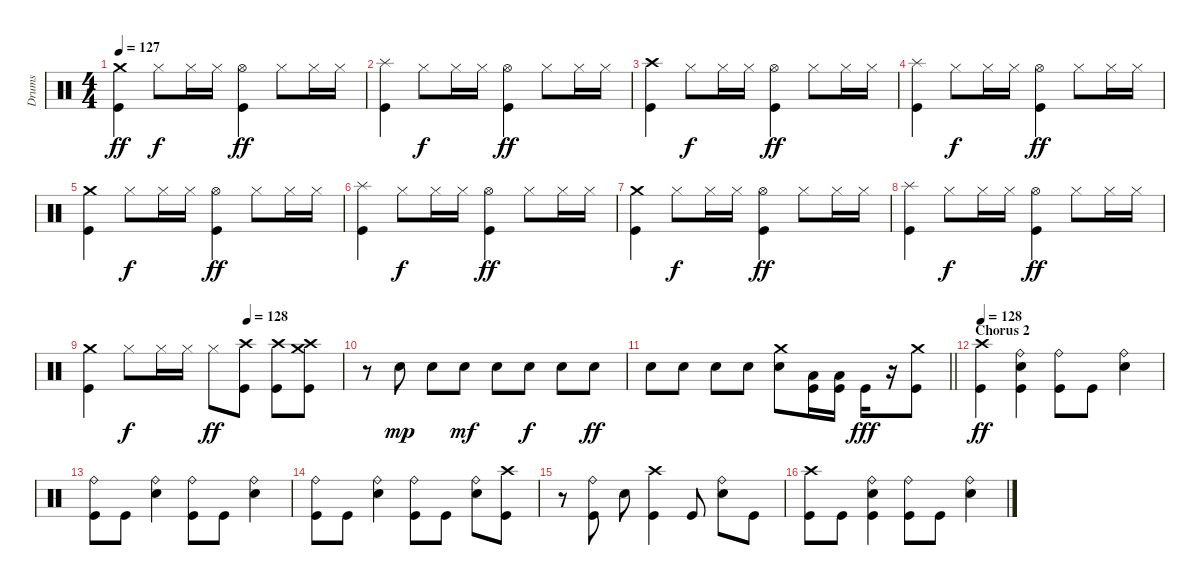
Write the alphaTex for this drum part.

\track ("Drums" "Drums") {instrument percussion}
\staff {score}
\articulation defaults
\ts (4 4)
\tempo 127
\clef neutral
\ks c
("Crash medium (hit)" "Kick (hit)").4{dy ff} "Hi-Hat (closed)".8{dy f} "Hi-Hat (closed)".16 "Hi-Hat (closed)".16 ("Hi-Hat (open)" "Kick (hit)").4{dy ff} "Hi-Hat (closed)".8 "Hi-Hat (closed)".16 "Hi-Hat (closed)".16 |
("Splash (hit)" "Kick (hit)").4 "Hi-Hat (closed)".8{dy f} "Hi-Hat (closed)".16 "Hi-Hat (closed)".16 ("Hi-Hat (open)" "Kick (hit)").4{dy ff} "Hi-Hat (closed)".8 "Hi-Hat (closed)".16 "Hi-Hat (closed)".16 |
("Crash high (hit)" "Kick (hit)").4 "Hi-Hat (closed)".8{dy f} "Hi-Hat (closed)".16 "Hi-Hat (closed)".16 ("Hi-Hat (open)" "Kick (hit)").4{dy ff} "Hi-Hat (closed)".8 "Hi-Hat (closed)".16 "Hi-Hat (closed)".16 |
("Splash (hit)" "Kick (hit)").4 "Hi-Hat (closed)".8{dy f} "Hi-Hat (closed)".16 "Hi-Hat (closed)".16 ("Hi-Hat (open)" "Kick (hit)").4{dy ff} "Hi-Hat (closed)".8 "Hi-Hat (closed)".16 "Hi-Hat (closed)".16 |
("Crash medium (hit)" "Kick (hit)").4 "Hi-Hat (closed)".8{dy f} "Hi-Hat (closed)".16 "Hi-Hat (closed)".16 ("Hi-Hat (open)" "Kick (hit)").4{dy ff} "Hi-Hat (closed)".8 "Hi-Hat (closed)".16 "Hi-Hat (closed)".16 |
("Splash (hit)" "Kick (hit)").4 "Hi-Hat (closed)".8{dy f} "Hi-Hat (closed)".16 "Hi-Hat (closed)".16 ("Hi-Hat (open)" "Kick (hit)").4{dy ff} "Hi-Hat (closed)".8 "Hi-Hat (closed)".16 "Hi-Hat (closed)".16 |
("Crash medium (hit)" "Kick (hit)").4 "Hi-Hat (closed)".8{dy f} "Hi-Hat (closed)".16 "Hi-Hat (closed)".16 ("Hi-Hat (open)" "Kick (hit)").4{dy ff} "Hi-Hat (closed)".8 "Hi-Hat (closed)".16 "Hi-Hat (closed)".16 |
("Splash (hit)" "Kick (hit)").4 "Hi-Hat (closed)".8{dy f} "Hi-Hat (closed)".16 "Hi-Hat (closed)".16 ("Hi-Hat (open)" "Kick (hit)").4{dy ff} "Hi-Hat (closed)".8 "Hi-Hat (closed)".16 "Hi-Hat (closed)".16 |
\tempo (128 0.625)
("Crash medium (hit)" "Kick (hit)").4 "Hi-Hat (closed)".8{dy f} "Hi-Hat (closed)".16 "Hi-Hat (closed)".16 "Hi-Hat (closed)".8{dy ff} ("Crash high (hit)" "Kick (hit)").8 ("Crash high (hit)" "Kick (hit)").8 ("Crash high (hit)" "Crash medium (hit)" "Kick (hit)").8 |
r.8 "Electric Snare (hit)".8{dy mp} "Electric Snare (hit)".8 "Electric Snare (hit)".8{dy mf} "Electric Snare (hit)".8 "Electric Snare (hit)".8{dy f} "Electric Snare (hit)".8 "Electric Snare (hit)".8{dy ff} |
\barLineRight lightlight "Electric Snare (hit)".8 "Electric Snare (hit)".8 "Electric Snare (hit)".8 "Electric Snare (hit)".8
("Crash medium (hit)" "Electric Snare (hit)").8 ("Low Tom (hit)" "Kick (hit)").16 ("Low Tom (hit)" "Kick (hit)").16 "Kick (hit)".16{dy fff} r.16 ("Crash medium (hit)" "Kick (hit)").8 |
\section ("" "Chorus 2")
\tempo 128
("Crash high (hit)" "Kick (hit)").4{dy ff} ("Ride (bell)" "Electric Snare (hit)" "Kick (hit)").4 ("Ride (bell)" "Kick (hit)").8 "Kick (hit)".8 ("Ride (bell)" "Electric Snare (hit)").4 |
("Ride (bell)" "Kick (hit)").8 "Kick (hit)".8 ("Ride (bell)" "Electric Snare (hit)").4 ("Ride (bell)" "Kick (hit)").8 "Kick (hit)".8 ("Ride (bell)" "Electric Snare (hit)").4 |
("Ride (bell)" "Kick (hit)").8 "Kick (hit)".8 ("Ride (bell)" "Electric Snare (hit)").4 ("Ride (bell)" "Kick (hit)").8 "Kick (hit)".8 ("Ride (bell)" "Electric Snare (hit)").8 ("Crash high (hit)" "Kick (hit)").8 |
r.8 ("Ride (bell)" "Kick (hit)").8 "Electric Snare (hit)".8 ("Crash high (hit)" "Kick (hit)").4 "Kick (hit)".8 ("Ride (bell)" "Electric Snare (hit)").8 "Kick (hit)".8 |
("Crash high (hit)" "Kick (hit)").8 "Kick (hit)".8 ("Ride (bell)" "Electric Snare (hit)" "Kick (hit)").4 ("Ride (bell)" "Kick (hit)").8 "Kick (hit)".8 ("Ride (bell)" "Electric Snare (hit)").4
